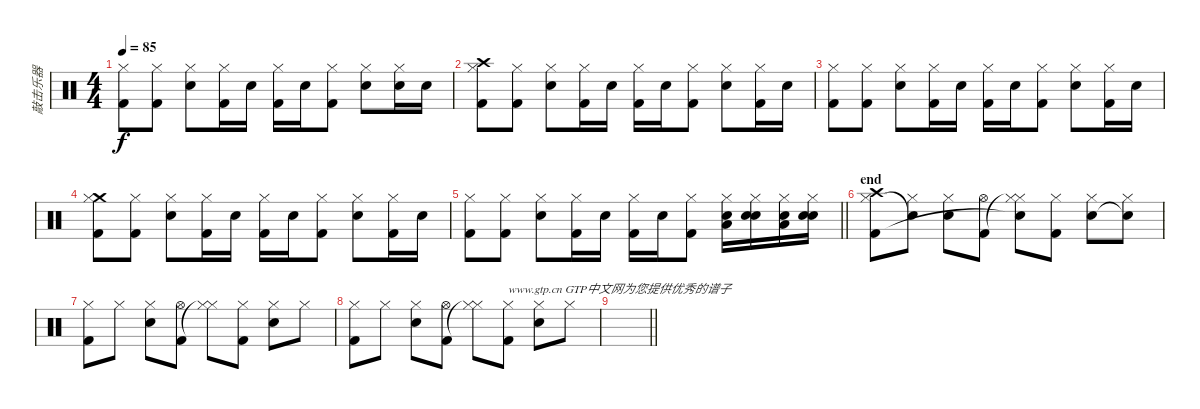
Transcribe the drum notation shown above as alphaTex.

\track ("敲击乐器" "敲击乐器") {instrument percussion}
\staff {score}
\articulation defaults
\ts (4 4)
\tempo 85
\clef neutral
\ks c
("Hi-Hat (closed)" "Kick (hit) 2").8{dy f} ("Hi-Hat (closed)" "Kick (hit) 2").8 ("Hi-Hat (closed)" "Electric Snare (hit)").8 ("Hi-Hat (closed)" "Kick (hit) 2").16 "Electric Snare (hit)".16 ("Hi-Hat (closed)" "Kick (hit) 2").16 "Electric Snare (hit)".16 ("Hi-Hat (closed)" "Kick (hit) 2").8 ("Hi-Hat (closed)" "Electric Snare (hit)").8 ("Hi-Hat (closed)" "Electric Snare (hit)").16 "Electric Snare (hit)".16 |
("Crash high (hit)" "Hi-Hat (closed)" "Kick (hit) 2").8 ("Hi-Hat (closed)" "Kick (hit) 2").8 ("Hi-Hat (closed)" "Electric Snare (hit)").8 ("Hi-Hat (closed)" "Kick (hit) 2").16 "Electric Snare (hit)".16 ("Hi-Hat (closed)" "Kick (hit) 2").16 "Electric Snare (hit)".16 ("Hi-Hat (closed)" "Kick (hit) 2").8 ("Hi-Hat (closed)" "Electric Snare (hit)").8 ("Hi-Hat (closed)" "Kick (hit) 2").16 "Electric Snare (hit)".16 |
("Hi-Hat (closed)" "Kick (hit) 2").8 ("Hi-Hat (closed)" "Kick (hit) 2").8 ("Hi-Hat (closed)" "Electric Snare (hit)").8 ("Hi-Hat (closed)" "Kick (hit) 2").16 "Electric Snare (hit)".16 ("Hi-Hat (closed)" "Kick (hit) 2").16 "Electric Snare (hit)".16 ("Hi-Hat (closed)" "Kick (hit) 2").8 ("Hi-Hat (closed)" "Electric Snare (hit)").8 ("Hi-Hat (closed)" "Kick (hit) 2").16 "Electric Snare (hit)".16 |
("Crash medium (hit)" "Hi-Hat (closed)" "Kick (hit) 2").8 ("Hi-Hat (closed)" "Kick (hit) 2").8 ("Hi-Hat (closed)" "Electric Snare (hit)").8 ("Hi-Hat (closed)" "Kick (hit) 2").16 "Electric Snare (hit)".16 ("Hi-Hat (closed)" "Kick (hit) 2").16 "Electric Snare (hit)".16 ("Hi-Hat (closed)" "Kick (hit) 2").8 ("Hi-Hat (closed)" "Electric Snare (hit)").8 ("Hi-Hat (closed)" "Kick (hit) 2").16 "Electric Snare (hit)".16 |
\barLineRight lightlight
("Hi-Hat (closed)" "Kick (hit) 2").8 ("Hi-Hat (closed)" "Kick (hit) 2").8 ("Hi-Hat (closed)" "Electric Snare (hit)").8 ("Hi-Hat (closed)" "Kick (hit) 2").16 "Electric Snare (hit)".16 ("Hi-Hat (closed)" "Kick (hit) 2").16 "Electric Snare (hit)".16 ("Hi-Hat (closed)" "Kick (hit) 2").8 ("Low Tom (hit)" "Hi-Hat (closed)" "Electric Snare (hit)").16 ("Electric Snare (hit)" "Hi-Hat (closed)" "Electric Snare (hit)").16 ("Low Tom (hit)" "Hi-Hat (closed)" "Electric Snare (hit)").16 ("Electric Snare (hit)" "Hi-Hat (closed)" "Electric Snare (hit)").16 |
\section ("" "end")
("Crash high (hit)" "Hi-Hat (closed)" "Kick (hit) 2").8 ("Hi-Hat (closed)" "Snare (hit)"{t}).8 ("Hi-Hat (closed)" "Electric Snare (hit)").8 ("Hi-Hat (open)" "Kick (hit) 2").8 ("Hi-Hat (closed)" "Hi-Hat (closed)"{t} "Snare (hit)"{t}).8 ("Hi-Hat (closed)" "Kick (hit) 2").8 ("Hi-Hat (closed)" "Electric Snare (hit)").8 ("Hi-Hat (closed)" "Snare (hit)"{t}).8 |
("Hi-Hat (closed)" "Kick (hit) 2").8 "Hi-Hat (closed)".8 ("Hi-Hat (closed)" "Electric Snare (hit)").8 ("Hi-Hat (open)" "Kick (hit) 2").8 ("Hi-Hat (closed)" "Hi-Hat (closed)"{t}).8 ("Hi-Hat (closed)" "Kick (hit) 2").8 ("Hi-Hat (closed)" "Electric Snare (hit)").8 "Hi-Hat (closed)".8 |
("Hi-Hat (closed)" "Kick (hit) 2").8 "Hi-Hat (closed)".8 ("Hi-Hat (closed)" "Electric Snare (hit)").8 ("Hi-Hat (open)" "Kick (hit) 2").8 ("Hi-Hat (closed)" "Hi-Hat (closed)"{t}).8 ("Hi-Hat (closed)" "Kick (hit) 2").8{txt "www.gtp.cn GTP中文网为您提供优秀的谱子"} ("Hi-Hat (closed)" "Electric Snare (hit)").8 "Hi-Hat (closed)".8 |
\barLineRight lightlight
